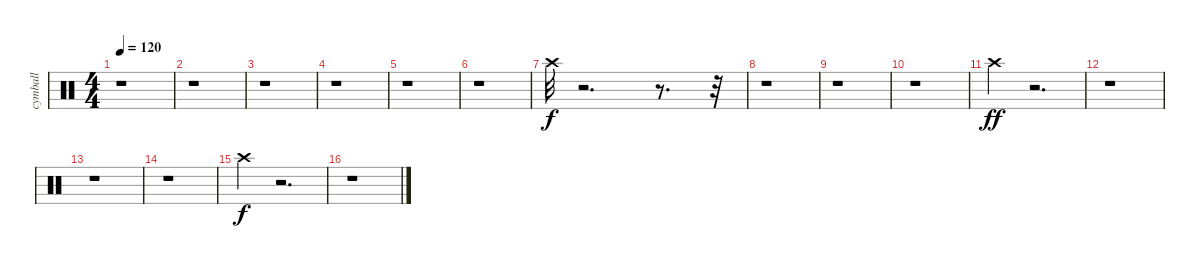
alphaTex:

\track ("cymball" "cymball") {instrument percussion}
\staff {score}
\articulation defaults
\ts (4 4)
\tempo 120
\clef neutral
\ks c
r.1{dy f} |
r.1 |
r.1 |
r.1 |
r.1 |
r.1 |
"Crash high (hit)".32 r.2{d} r.8{d} r.32 |
r.1 |
r.1 |
r.1 |
"Crash high (hit)".4{dy ff} r.2{d} |
r.1 |
r.1 |
r.1 |
"Crash high (hit)".4{dy f} r.2{d} |
r.1
